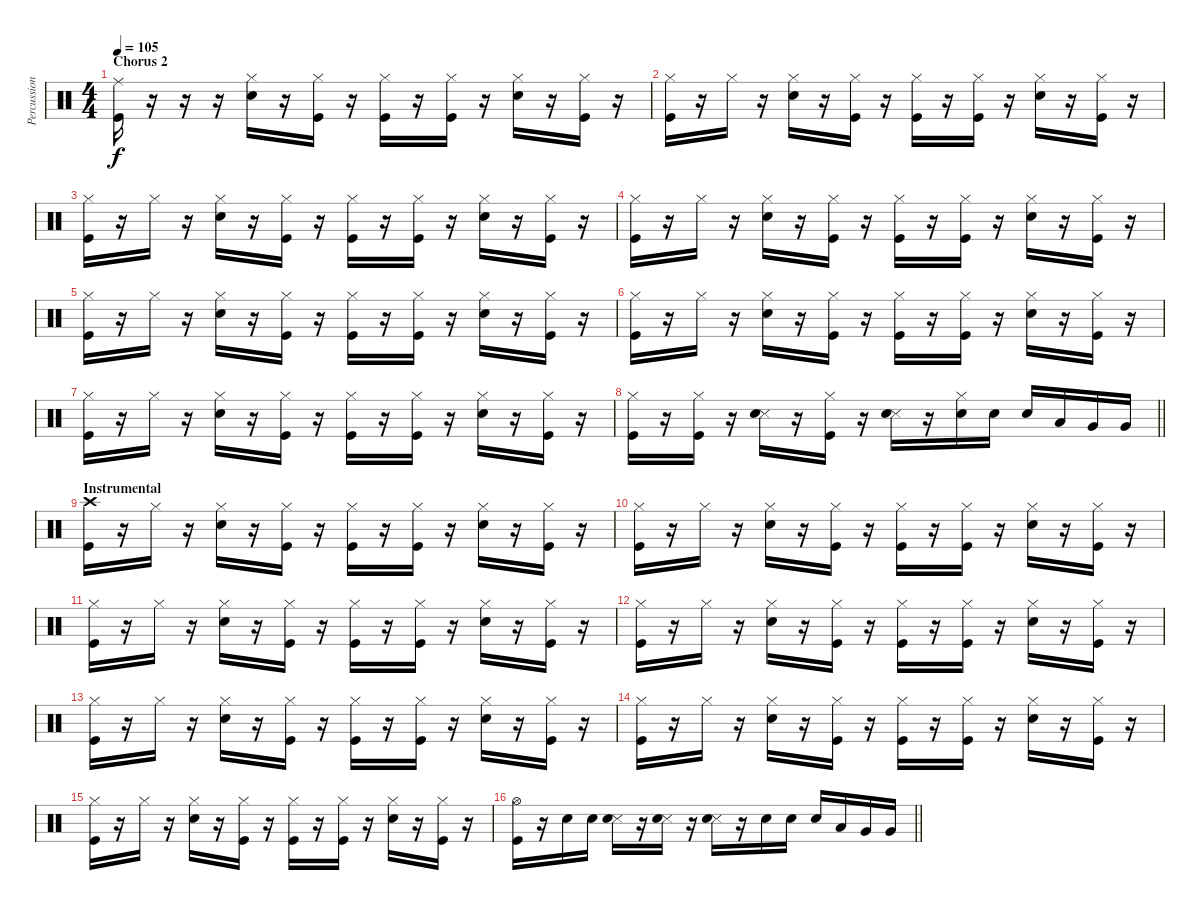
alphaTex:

\track ("Percussion" "Percussion") {instrument percussion}
\staff {score}
\articulation defaults
\ts (4 4)
\section ("" "Chorus 2")
\tempo 105
\clef neutral
\ks c
("Ride (middle)" "Kick (hit)").16{dy f} r.16 r.16 r.16 ("Hi-Hat (closed)" "Snare (hit) 2").16 r.16 ("Hi-Hat (closed)" "Kick (hit)").16 r.16 ("Hi-Hat (closed)" "Kick (hit)").16 r.16 ("Hi-Hat (closed)" "Kick (hit)").16 r.16 ("Hi-Hat (closed)" "Snare (hit) 2").16 r.16 ("Hi-Hat (closed)" "Kick (hit)").16 r.16 |
("Hi-Hat (closed)" "Kick (hit)").16 r.16 "Hi-Hat (closed)".16 r.16 ("Hi-Hat (closed)" "Snare (hit) 2").16 r.16 ("Hi-Hat (closed)" "Kick (hit)").16 r.16 ("Hi-Hat (closed)" "Kick (hit)").16 r.16 ("Hi-Hat (closed)" "Kick (hit)").16 r.16 ("Hi-Hat (closed)" "Snare (hit) 2").16 r.16 ("Hi-Hat (closed)" "Kick (hit)").16 r.16 |
("Hi-Hat (closed)" "Kick (hit)").16 r.16 "Hi-Hat (closed)".16 r.16 ("Hi-Hat (closed)" "Snare (hit) 2").16 r.16 ("Hi-Hat (closed)" "Kick (hit)").16 r.16 ("Hi-Hat (closed)" "Kick (hit)").16 r.16 ("Hi-Hat (closed)" "Kick (hit)").16 r.16 ("Hi-Hat (closed)" "Snare (hit) 2").16 r.16 ("Hi-Hat (closed)" "Kick (hit)").16 r.16 |
("Hi-Hat (closed)" "Kick (hit)").16 r.16 "Hi-Hat (closed)".16 r.16 ("Hi-Hat (closed)" "Snare (hit) 2").16 r.16 ("Hi-Hat (closed)" "Kick (hit)").16 r.16 ("Hi-Hat (closed)" "Kick (hit)").16 r.16 ("Hi-Hat (closed)" "Kick (hit)").16 r.16 ("Hi-Hat (closed)" "Snare (hit) 2").16 r.16 ("Hi-Hat (closed)" "Kick (hit)").16 r.16 |
("Hi-Hat (closed)" "Kick (hit)").16 r.16 "Hi-Hat (closed)".16 r.16 ("Hi-Hat (closed)" "Snare (hit) 2").16 r.16 ("Hi-Hat (closed)" "Kick (hit)").16 r.16 ("Hi-Hat (closed)" "Kick (hit)").16 r.16 ("Hi-Hat (closed)" "Kick (hit)").16 r.16 ("Hi-Hat (closed)" "Snare (hit) 2").16 r.16 ("Hi-Hat (closed)" "Kick (hit)").16 r.16 |
("Hi-Hat (closed)" "Kick (hit)").16 r.16 "Hi-Hat (closed)".16 r.16 ("Hi-Hat (closed)" "Snare (hit) 2").16 r.16 ("Hi-Hat (closed)" "Kick (hit)").16 r.16 ("Hi-Hat (closed)" "Kick (hit)").16 r.16 ("Hi-Hat (closed)" "Kick (hit)").16 r.16 ("Hi-Hat (closed)" "Snare (hit) 2").16 r.16 ("Hi-Hat (closed)" "Kick (hit)").16 r.16 |
("Hi-Hat (closed)" "Kick (hit)").16 r.16 "Hi-Hat (closed)".16 r.16 ("Hi-Hat (closed)" "Snare (hit) 2").16 r.16 ("Hi-Hat (closed)" "Kick (hit)").16 r.16 ("Hi-Hat (closed)" "Kick (hit)").16 r.16 ("Hi-Hat (closed)" "Kick (hit)").16 r.16 ("Hi-Hat (closed)" "Snare (hit) 2").16 r.16 ("Hi-Hat (closed)" "Kick (hit)").16 r.16 |
\barLineRight lightlight
("Hi-Hat (closed)" "Kick (hit)").16 r.16 ("Hi-Hat (closed)" "Kick (hit)").16 r.16 ("Snare (side stick) 3" "Snare (hit) 2").16 r.16 ("Hi-Hat (closed)" "Kick (hit)").16 r.16 ("Snare (side stick) 3" "Snare (hit) 2").16 r.16 ("Hi-Hat (closed)" "Snare (hit) 2").16 "Snare (hit) 2".16 "Snare (hit) 2".16 "Low Tom (hit)".16 "Very Low Tom (hit)".16 "Very Low Tom (hit)".16 |
\section ("" "Instrumental")
("Crash high (hit)" "Kick (hit)").16 r.16 "Hi-Hat (closed)".16 r.16 ("Hi-Hat (closed)" "Snare (hit) 2").16 r.16 ("Hi-Hat (closed)" "Kick (hit)").16 r.16 ("Hi-Hat (closed)" "Kick (hit)").16 r.16 ("Hi-Hat (closed)" "Kick (hit)").16 r.16 ("Hi-Hat (closed)" "Snare (hit) 2").16 r.16 ("Hi-Hat (closed)" "Kick (hit)").16 r.16 |
("Hi-Hat (closed)" "Kick (hit)").16 r.16 "Hi-Hat (closed)".16 r.16 ("Hi-Hat (closed)" "Snare (hit) 2").16 r.16 ("Hi-Hat (closed)" "Kick (hit)").16 r.16 ("Hi-Hat (closed)" "Kick (hit)").16 r.16 ("Hi-Hat (closed)" "Kick (hit)").16 r.16 ("Hi-Hat (closed)" "Snare (hit) 2").16 r.16 ("Hi-Hat (closed)" "Kick (hit)").16 r.16 |
("Hi-Hat (closed)" "Kick (hit)").16 r.16 "Hi-Hat (closed)".16 r.16 ("Hi-Hat (closed)" "Snare (hit) 2").16 r.16 ("Hi-Hat (closed)" "Kick (hit)").16 r.16 ("Hi-Hat (closed)" "Kick (hit)").16 r.16 ("Hi-Hat (closed)" "Kick (hit)").16 r.16 ("Hi-Hat (closed)" "Snare (hit) 2").16 r.16 ("Hi-Hat (closed)" "Kick (hit)").16 r.16 |
("Hi-Hat (closed)" "Kick (hit)").16 r.16 "Hi-Hat (closed)".16 r.16 ("Hi-Hat (closed)" "Snare (hit) 2").16 r.16 ("Hi-Hat (closed)" "Kick (hit)").16 r.16 ("Hi-Hat (closed)" "Kick (hit)").16 r.16 ("Hi-Hat (closed)" "Kick (hit)").16 r.16 ("Hi-Hat (closed)" "Snare (hit) 2").16 r.16 ("Hi-Hat (closed)" "Kick (hit)").16 r.16 |
("Hi-Hat (closed)" "Kick (hit)").16 r.16 "Hi-Hat (closed)".16 r.16 ("Hi-Hat (closed)" "Snare (hit) 2").16 r.16 ("Hi-Hat (closed)" "Kick (hit)").16 r.16 ("Hi-Hat (closed)" "Kick (hit)").16 r.16 ("Hi-Hat (closed)" "Kick (hit)").16 r.16 ("Hi-Hat (closed)" "Snare (hit) 2").16 r.16 ("Hi-Hat (closed)" "Kick (hit)").16 r.16 |
("Hi-Hat (closed)" "Kick (hit)").16 r.16 "Hi-Hat (closed)".16 r.16 ("Hi-Hat (closed)" "Snare (hit) 2").16 r.16 ("Hi-Hat (closed)" "Kick (hit)").16 r.16 ("Hi-Hat (closed)" "Kick (hit)").16 r.16 ("Hi-Hat (closed)" "Kick (hit)").16 r.16 ("Hi-Hat (closed)" "Snare (hit) 2").16 r.16 ("Hi-Hat (closed)" "Kick (hit)").16 r.16 |
("Hi-Hat (closed)" "Kick (hit)").16 r.16 "Hi-Hat (closed)".16 r.16 ("Hi-Hat (closed)" "Snare (hit) 2").16 r.16 ("Hi-Hat (closed)" "Kick (hit)").16 r.16 ("Hi-Hat (closed)" "Kick (hit)").16 r.16 ("Hi-Hat (closed)" "Kick (hit)").16 r.16 ("Hi-Hat (closed)" "Snare (hit) 2").16 r.16 ("Hi-Hat (closed)" "Kick (hit)").16 r.16 |
\barLineRight lightlight
("Hi-Hat (open)" "Kick (hit)").16 r.16 "Snare (hit) 2".16 "Snare (hit) 2".16 ("Snare (side stick) 3" "Snare (hit) 2").16 r.16 ("Snare (side stick) 3" "Snare (hit) 2").16 r.16 ("Snare (side stick) 3" "Snare (hit) 2").16 r.16 "Snare (hit) 2".16 "Snare (hit) 2".16 "Snare (hit) 2".16 "Low Tom (hit)".16 "Very Low Tom (hit)".16 "Very Low Tom (hit)".16
